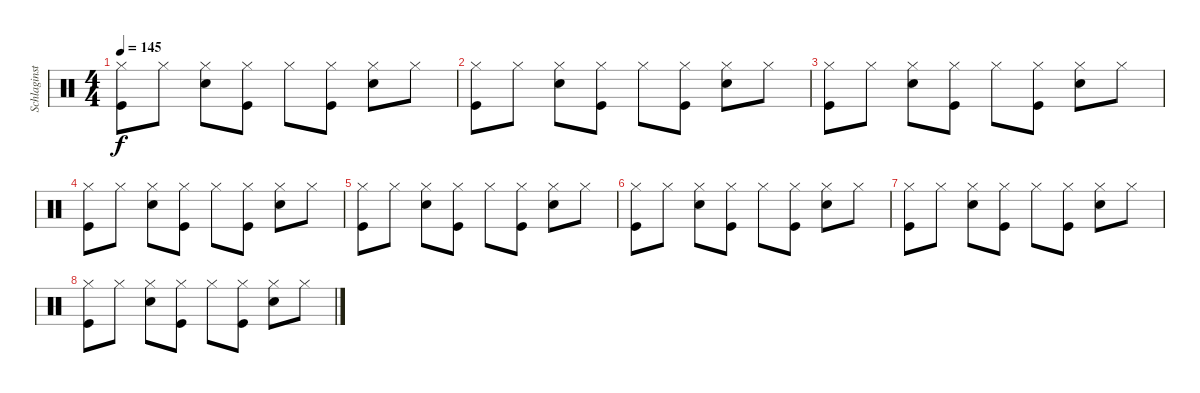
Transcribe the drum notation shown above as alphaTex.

\track ("Schlaginstrumente - Auswahl" "Schlaginst") {instrument percussion}
\staff {score}
\articulation defaults
\ts (4 4)
\tempo 145
\clef neutral
\ks c
("Kick (hit)" "Hi-Hat (closed)").8{dy f} "Hi-Hat (closed)".8 ("Snare (hit) 2" "Hi-Hat (closed)").8 ("Hi-Hat (closed)" "Kick (hit)").8 "Hi-Hat (closed)".8 ("Hi-Hat (closed)" "Kick (hit)").8 ("Snare (hit) 2" "Hi-Hat (closed)").8 "Hi-Hat (closed)".8 |
("Kick (hit)" "Hi-Hat (closed)").8 "Hi-Hat (closed)".8 ("Snare (hit) 2" "Hi-Hat (closed)").8 ("Hi-Hat (closed)" "Kick (hit)").8 "Hi-Hat (closed)".8 ("Hi-Hat (closed)" "Kick (hit)").8 ("Snare (hit) 2" "Hi-Hat (closed)").8 "Hi-Hat (closed)".8 |
("Kick (hit)" "Hi-Hat (closed)").8 "Hi-Hat (closed)".8 ("Snare (hit) 2" "Hi-Hat (closed)").8 ("Hi-Hat (closed)" "Kick (hit)").8 "Hi-Hat (closed)".8 ("Hi-Hat (closed)" "Kick (hit)").8 ("Snare (hit) 2" "Hi-Hat (closed)").8 "Hi-Hat (closed)".8 |
("Kick (hit)" "Hi-Hat (closed)").8 "Hi-Hat (closed)".8 ("Snare (hit) 2" "Hi-Hat (closed)").8 ("Hi-Hat (closed)" "Kick (hit)").8 "Hi-Hat (closed)".8 ("Hi-Hat (closed)" "Kick (hit)").8 ("Snare (hit) 2" "Hi-Hat (closed)").8 "Hi-Hat (closed)".8 |
("Kick (hit)" "Hi-Hat (closed)").8 "Hi-Hat (closed)".8 ("Snare (hit) 2" "Hi-Hat (closed)").8 ("Hi-Hat (closed)" "Kick (hit)").8 "Hi-Hat (closed)".8 ("Hi-Hat (closed)" "Kick (hit)").8 ("Snare (hit) 2" "Hi-Hat (closed)").8 "Hi-Hat (closed)".8 |
("Kick (hit)" "Hi-Hat (closed)").8 "Hi-Hat (closed)".8 ("Snare (hit) 2" "Hi-Hat (closed)").8 ("Hi-Hat (closed)" "Kick (hit)").8 "Hi-Hat (closed)".8 ("Hi-Hat (closed)" "Kick (hit)").8 ("Snare (hit) 2" "Hi-Hat (closed)").8 "Hi-Hat (closed)".8 |
("Kick (hit)" "Hi-Hat (closed)").8 "Hi-Hat (closed)".8 ("Snare (hit) 2" "Hi-Hat (closed)").8 ("Hi-Hat (closed)" "Kick (hit)").8 "Hi-Hat (closed)".8 ("Hi-Hat (closed)" "Kick (hit)").8 ("Snare (hit) 2" "Hi-Hat (closed)").8 "Hi-Hat (closed)".8 |
("Kick (hit)" "Hi-Hat (closed)").8 "Hi-Hat (closed)".8 ("Snare (hit) 2" "Hi-Hat (closed)").8 ("Hi-Hat (closed)" "Kick (hit)").8 "Hi-Hat (closed)".8 ("Hi-Hat (closed)" "Kick (hit)").8 ("Snare (hit) 2" "Hi-Hat (closed)").8 "Hi-Hat (closed)".8
